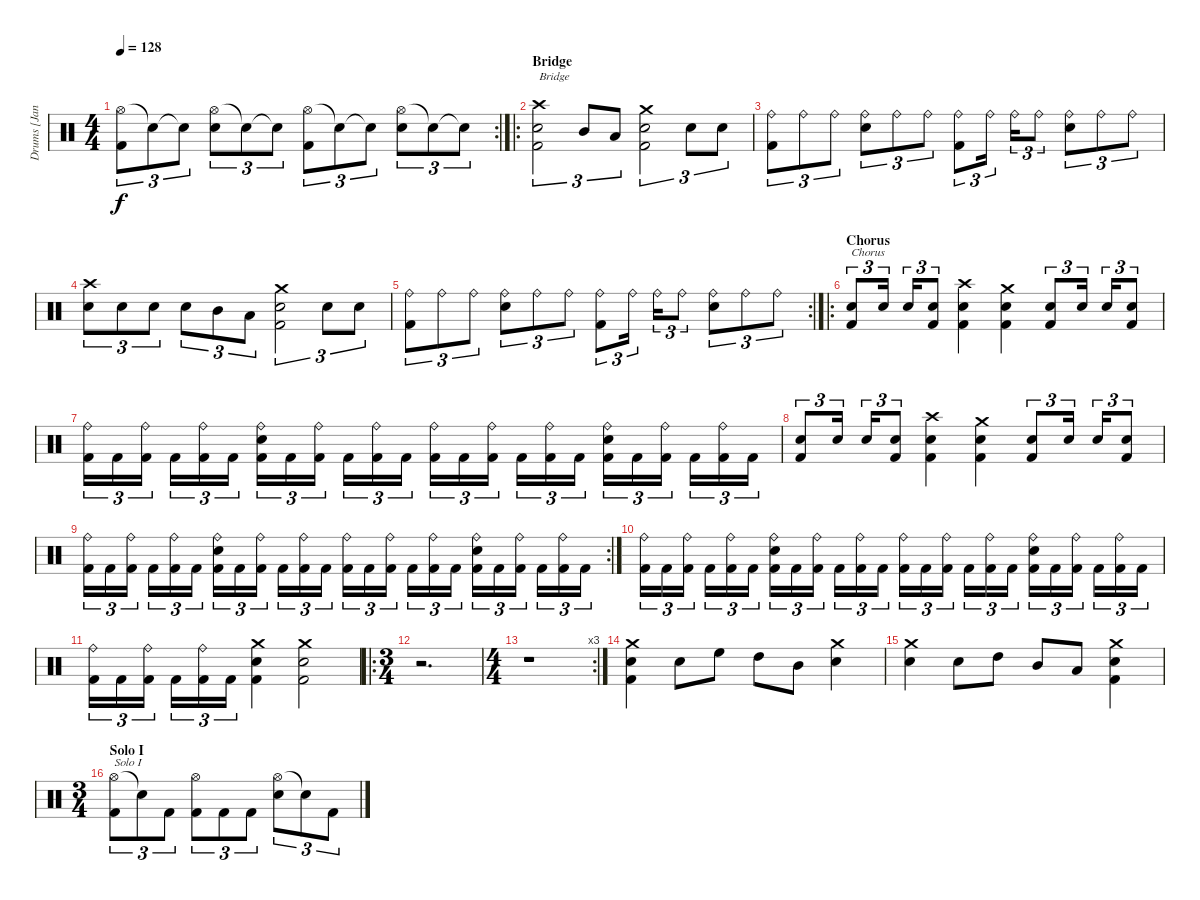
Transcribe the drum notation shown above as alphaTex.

\track ("Drums [Janne Saarenpaa]" "Drums [Jan") {instrument percussion}
\staff {score}
\articulation defaults
\rc 2
\ts (4 4)
\tempo 128
\clef neutral
\ks c
("Hi-Hat (open)" "Kick (hit) 2").8{tu (3 2) dy f} "Snare (hit)"{t}.8{tu (3 2)} "Snare (hit)"{t}.8{tu (3 2)} ("Hi-Hat (open)" "Electric Snare (hit)").8{tu (3 2)} "Snare (hit)"{t}.8{tu (3 2)} "Snare (hit)"{t}.8{tu (3 2)} ("Hi-Hat (open)" "Kick (hit) 2").8{tu (3 2)} "Snare (hit)"{t}.8{tu (3 2)} "Snare (hit)"{t}.8{tu (3 2)} ("Hi-Hat (open)" "Electric Snare (hit)").8{tu (3 2)} "Snare (hit)"{t}.8{tu (3 2)} "Snare (hit)"{t}.8{tu (3 2)} |
\ro
\section ("" "Bridge")
("Crash high (hit)" "Electric Snare (hit)" "Kick (hit) 2").2{tu (3 2) txt "Bridge"} "Mid Tom (hit)".8{tu (3 2)} "Low Tom (hit)".8{tu (3 2)} ("Crash medium (hit)" "Electric Snare (hit)" "Kick (hit) 2").2{tu (3 2)} "Electric Snare (hit)".8{tu (3 2)} "Electric Snare (hit)".8{tu (3 2)} |
("Ride (bell)" "Kick (hit) 2").8{tu (3 2)} "Ride (bell)".8{tu (3 2)} "Ride (bell)".8{tu (3 2)} ("Ride (bell)" "Electric Snare (hit)").8{tu (3 2)} "Ride (bell)".8{tu (3 2)} "Ride (bell)".8{tu (3 2)} ("Ride (bell)" "Kick (hit) 2").8{tu (3 2)} "Ride (bell)".16{tu (3 2)} "Ride (bell)".16{tu (3 2)} "Ride (bell)".8{tu (3 2)} ("Ride (bell)" "Electric Snare (hit)").8{tu (3 2)} "Ride (bell)".8{tu (3 2)} "Ride (bell)".8{tu (3 2)} |
("Crash high (hit)" "Electric Snare (hit)").8{tu (3 2)} "Electric Snare (hit)".8{tu (3 2)} "Electric Snare (hit)".8{tu (3 2)} "Electric Snare (hit)".8{tu (3 2)} "Mid Tom (hit)".8{tu (3 2)} "Low Tom (hit)".8{tu (3 2)} ("Crash medium (hit)" "Electric Snare (hit)" "Kick (hit) 2").2{tu (3 2)} "Electric Snare (hit)".8{tu (3 2)} "Electric Snare (hit)".8{tu (3 2)} |
\rc 2
("Ride (bell)" "Kick (hit) 2").8{tu (3 2)} "Ride (bell)".8{tu (3 2)} "Ride (bell)".8{tu (3 2)} ("Ride (bell)" "Electric Snare (hit)").8{tu (3 2)} "Ride (bell)".8{tu (3 2)} "Ride (bell)".8{tu (3 2)} ("Ride (bell)" "Kick (hit) 2").8{tu (3 2)} "Ride (bell)".16{tu (3 2)} "Ride (bell)".16{tu (3 2)} "Ride (bell)".8{tu (3 2)} ("Ride (bell)" "Electric Snare (hit)").8{tu (3 2)} "Ride (bell)".8{tu (3 2)} "Ride (bell)".8{tu (3 2)} |
\ro
\section ("" "Chorus")
("Electric Snare (hit)" "Kick (hit) 2").8{tu (3 2) txt "Chorus"} "Electric Snare (hit)".16{tu (3 2)} "Electric Snare (hit)".16{tu (3 2)} ("Electric Snare (hit)" "Kick (hit) 2").8{tu (3 2)} ("Crash high (hit)" "Electric Snare (hit)" "Kick (hit) 2").4 ("Crash medium (hit)" "Electric Snare (hit)" "Kick (hit) 2").4 ("Electric Snare (hit)" "Kick (hit) 2").8{tu (3 2)} "Electric Snare (hit)".16{tu (3 2)} "Electric Snare (hit)".16{tu (3 2)} ("Electric Snare (hit)" "Kick (hit) 2").8{tu (3 2)} |
("Ride (bell)" "Kick (hit) 2").16{tu (3 2)} "Kick (hit) 2".16{tu (3 2)} ("Ride (bell)" "Kick (hit) 2").16{tu (3 2)} "Kick (hit) 2".16{tu (3 2)} ("Ride (bell)" "Kick (hit) 2").16{tu (3 2)} "Kick (hit) 2".16{tu (3 2)} ("Ride (bell)" "Electric Snare (hit)" "Kick (hit) 2").16{tu (3 2)} "Kick (hit) 2".16{tu (3 2)} ("Ride (bell)" "Kick (hit) 2").16{tu (3 2)} "Kick (hit) 2".16{tu (3 2)} ("Ride (bell)" "Kick (hit) 2").16{tu (3 2)} "Kick (hit) 2".16{tu (3 2)} ("Ride (bell)" "Kick (hit) 2").16{tu (3 2)} "Kick (hit) 2".16{tu (3 2)} ("Ride (bell)" "Kick (hit) 2").16{tu (3 2)} "Kick (hit) 2".16{tu (3 2)} ("Ride (bell)" "Kick (hit) 2").16{tu (3 2)} "Kick (hit) 2".16{tu (3 2)} ("Ride (bell)" "Electric Snare (hit)" "Kick (hit) 2").16{tu (3 2)} "Kick (hit) 2".16{tu (3 2)} ("Ride (bell)" "Kick (hit) 2").16{tu (3 2)} "Kick (hit) 2".16{tu (3 2)} ("Ride (bell)" "Kick (hit) 2").16{tu (3 2)} "Kick (hit) 2".16{tu (3 2)} |
("Electric Snare (hit)" "Kick (hit) 2").8{tu (3 2)} "Electric Snare (hit)".16{tu (3 2)} "Electric Snare (hit)".16{tu (3 2)} ("Electric Snare (hit)" "Kick (hit) 2").8{tu (3 2)} ("Crash high (hit)" "Electric Snare (hit)" "Kick (hit) 2").4 ("Crash medium (hit)" "Electric Snare (hit)" "Kick (hit) 2").4 ("Electric Snare (hit)" "Kick (hit) 2").8{tu (3 2)} "Electric Snare (hit)".16{tu (3 2)} "Electric Snare (hit)".16{tu (3 2)} ("Electric Snare (hit)" "Kick (hit) 2").8{tu (3 2)} |
\rc 2
("Ride (bell)" "Kick (hit) 2").16{tu (3 2)} "Kick (hit) 2".16{tu (3 2)} ("Ride (bell)" "Kick (hit) 2").16{tu (3 2)} "Kick (hit) 2".16{tu (3 2)} ("Ride (bell)" "Kick (hit) 2").16{tu (3 2)} "Kick (hit) 2".16{tu (3 2)} ("Ride (bell)" "Electric Snare (hit)" "Kick (hit) 2").16{tu (3 2)} "Kick (hit) 2".16{tu (3 2)} ("Ride (bell)" "Kick (hit) 2").16{tu (3 2)} "Kick (hit) 2".16{tu (3 2)} ("Ride (bell)" "Kick (hit) 2").16{tu (3 2)} "Kick (hit) 2".16{tu (3 2)} ("Ride (bell)" "Kick (hit) 2").16{tu (3 2)} "Kick (hit) 2".16{tu (3 2)} ("Ride (bell)" "Kick (hit) 2").16{tu (3 2)} "Kick (hit) 2".16{tu (3 2)} ("Ride (bell)" "Kick (hit) 2").16{tu (3 2)} "Kick (hit) 2".16{tu (3 2)} ("Ride (bell)" "Electric Snare (hit)" "Kick (hit) 2").16{tu (3 2)} "Kick (hit) 2".16{tu (3 2)} ("Ride (bell)" "Kick (hit) 2").16{tu (3 2)} "Kick (hit) 2".16{tu (3 2)} ("Ride (bell)" "Kick (hit) 2").16{tu (3 2)} "Kick (hit) 2".16{tu (3 2)} |
("Ride (bell)" "Kick (hit) 2").16{tu (3 2)} "Kick (hit) 2".16{tu (3 2)} ("Ride (bell)" "Kick (hit) 2").16{tu (3 2)} "Kick (hit) 2".16{tu (3 2)} ("Ride (bell)" "Kick (hit) 2").16{tu (3 2)} "Kick (hit) 2".16{tu (3 2)} ("Ride (bell)" "Electric Snare (hit)" "Kick (hit) 2").16{tu (3 2)} "Kick (hit) 2".16{tu (3 2)} ("Ride (bell)" "Kick (hit) 2").16{tu (3 2)} "Kick (hit) 2".16{tu (3 2)} ("Ride (bell)" "Kick (hit) 2").16{tu (3 2)} "Kick (hit) 2".16{tu (3 2)} ("Ride (bell)" "Kick (hit) 2").16{tu (3 2)} "Kick (hit) 2".16{tu (3 2)} ("Ride (bell)" "Kick (hit) 2").16{tu (3 2)} "Kick (hit) 2".16{tu (3 2)} ("Ride (bell)" "Kick (hit) 2").16{tu (3 2)} "Kick (hit) 2".16{tu (3 2)} ("Ride (bell)" "Electric Snare (hit)" "Kick (hit) 2").16{tu (3 2)} "Kick (hit) 2".16{tu (3 2)} ("Ride (bell)" "Kick (hit) 2").16{tu (3 2)} "Kick (hit) 2".16{tu (3 2)} ("Ride (bell)" "Kick (hit) 2").16{tu (3 2)} "Kick (hit) 2".16{tu (3 2)} |
("Ride (bell)" "Kick (hit) 2").16{tu (3 2)} "Kick (hit) 2".16{tu (3 2)} ("Ride (bell)" "Kick (hit) 2").16{tu (3 2)} "Kick (hit) 2".16{tu (3 2)} ("Ride (bell)" "Kick (hit) 2").16{tu (3 2)} "Kick (hit) 2".16{tu (3 2)} ("Crash medium (hit)" "Electric Snare (hit)" "Kick (hit) 2").4 ("Crash medium (hit)" "Electric Snare (hit)" "Kick (hit) 2").2 |
\ro
\ts (3 4)
r.2{d} |
\rc 3
\ts (4 4)
r.1 |
("Crash medium (hit)" "Electric Snare (hit)" "Kick (hit) 2").4 "Electric Snare (hit)".8 "High Floor Tom (hit)".8 "High Tom (hit)".8 "Mid Tom (hit)".8 ("Crash medium (hit)" "Electric Snare (hit)").4 |
("Crash medium (hit)" "Electric Snare (hit)").4 "Electric Snare (hit)".8 "High Tom (hit)".8 "Mid Tom (hit)".8 "Low Tom (hit)".8 ("Crash medium (hit)" "Electric Snare (hit)" "Kick (hit) 2").4 |
\ts (3 4)
\section ("" "Solo I")
("Hi-Hat (open)" "Kick (hit) 2").8{tu (3 2) txt "Solo I"} "Snare (hit)"{t}.8{tu (3 2)} "Kick (hit) 2".8{tu (3 2)} ("Hi-Hat (open)" "Kick (hit) 2").8{tu (3 2)} "Kick (hit) 2".8{tu (3 2)} "Kick (hit) 2".8{tu (3 2)} ("Hi-Hat (open)" "Electric Snare (hit)").8{tu (3 2)} "Snare (hit)"{t}.8{tu (3 2)} "Kick (hit) 2".8{tu (3 2)}
